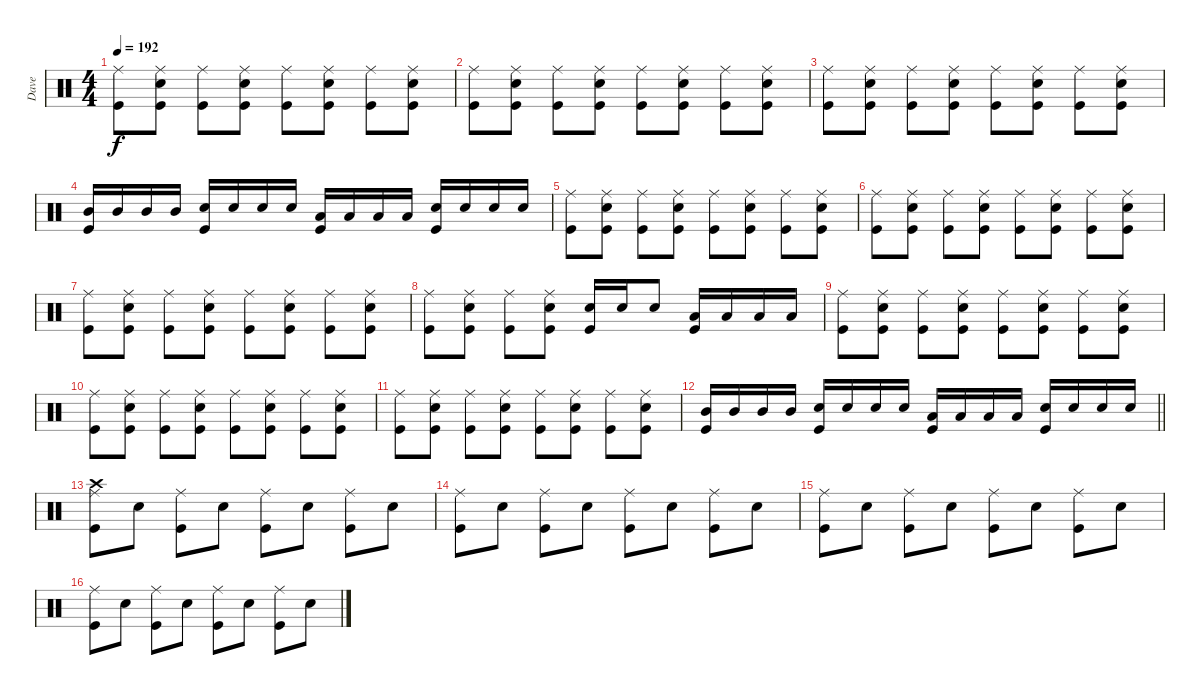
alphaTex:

\track ("Dave" "Dave") {instrument percussion}
\staff {score}
\articulation defaults
\ts (4 4)
\tempo 192
\clef neutral
\ks c
("Ride (middle)" "Kick (hit)").8{dy f} ("Ride (middle)" "Snare (hit) 2" "Kick (hit)").8 ("Ride (middle)" "Kick (hit)").8 ("Ride (middle)" "Snare (hit) 2" "Kick (hit)").8 ("Ride (middle)" "Kick (hit)").8 ("Ride (middle)" "Snare (hit) 2" "Kick (hit)").8 ("Ride (middle)" "Kick (hit)").8 ("Ride (middle)" "Snare (hit) 2" "Kick (hit)").8 |
("Ride (middle)" "Kick (hit)").8 ("Ride (middle)" "Snare (hit) 2" "Kick (hit)").8 ("Ride (middle)" "Kick (hit)").8 ("Ride (middle)" "Snare (hit) 2" "Kick (hit)").8 ("Ride (middle)" "Kick (hit)").8 ("Ride (middle)" "Snare (hit) 2" "Kick (hit)").8 ("Ride (middle)" "Kick (hit)").8 ("Ride (middle)" "Snare (hit) 2" "Kick (hit)").8 |
("Ride (middle)" "Kick (hit)").8 ("Ride (middle)" "Snare (hit) 2" "Kick (hit)").8 ("Ride (middle)" "Kick (hit)").8 ("Ride (middle)" "Snare (hit) 2" "Kick (hit)").8 ("Ride (middle)" "Kick (hit)").8 ("Ride (middle)" "Snare (hit) 2" "Kick (hit)").8 ("Ride (middle)" "Kick (hit)").8 ("Ride (middle)" "Snare (hit) 2" "Kick (hit)").8 |
("Kick (hit)" "Mid Tom (hit)").16 "Mid Tom (hit)".16 "Mid Tom (hit)".16 "Mid Tom (hit)".16 ("Kick (hit)" "Snare (hit) 2").16 "Snare (hit) 2".16 "Snare (hit) 2".16 "Snare (hit) 2".16 ("Kick (hit)" "Low Tom (hit)").16 "Low Tom (hit)".16 "Low Tom (hit)".16 "Low Tom (hit)".16 ("Kick (hit)" "Snare (hit) 2").16 "Snare (hit) 2".16 "Snare (hit) 2".16 "Snare (hit) 2".16 |
("Ride (middle)" "Kick (hit)").8 ("Ride (middle)" "Snare (hit) 2" "Kick (hit)").8 ("Ride (middle)" "Kick (hit)").8 ("Ride (middle)" "Snare (hit) 2" "Kick (hit)").8 ("Ride (middle)" "Kick (hit)").8 ("Ride (middle)" "Snare (hit) 2" "Kick (hit)").8 ("Ride (middle)" "Kick (hit)").8 ("Ride (middle)" "Snare (hit) 2" "Kick (hit)").8 |
("Ride (middle)" "Kick (hit)").8 ("Ride (middle)" "Snare (hit) 2" "Kick (hit)").8 ("Ride (middle)" "Kick (hit)").8 ("Ride (middle)" "Snare (hit) 2" "Kick (hit)").8 ("Ride (middle)" "Kick (hit)").8 ("Ride (middle)" "Snare (hit) 2" "Kick (hit)").8 ("Ride (middle)" "Kick (hit)").8 ("Ride (middle)" "Snare (hit) 2" "Kick (hit)").8 |
("Ride (middle)" "Kick (hit)").8 ("Ride (middle)" "Snare (hit) 2" "Kick (hit)").8 ("Ride (middle)" "Kick (hit)").8 ("Ride (middle)" "Snare (hit) 2" "Kick (hit)").8 ("Ride (middle)" "Kick (hit)").8 ("Ride (middle)" "Snare (hit) 2" "Kick (hit)").8 ("Ride (middle)" "Kick (hit)").8 ("Ride (middle)" "Snare (hit) 2" "Kick (hit)").8 |
("Ride (middle)" "Kick (hit)").8 ("Ride (middle)" "Snare (hit) 2" "Kick (hit)").8 ("Ride (middle)" "Kick (hit)").8 ("Ride (middle)" "Snare (hit) 2" "Kick (hit)").8 ("Snare (hit) 2" "Kick (hit)").16 "Snare (hit) 2".16 "Snare (hit) 2".8 ("Low Tom (hit)" "Kick (hit)").16 "Low Tom (hit)".16 "Low Tom (hit)".16 "Low Tom (hit)".16 |
("Ride (middle)" "Kick (hit)").8 ("Ride (middle)" "Snare (hit) 2" "Kick (hit)").8 ("Ride (middle)" "Kick (hit)").8 ("Ride (middle)" "Snare (hit) 2" "Kick (hit)").8 ("Ride (middle)" "Kick (hit)").8 ("Ride (middle)" "Snare (hit) 2" "Kick (hit)").8 ("Ride (middle)" "Kick (hit)").8 ("Ride (middle)" "Snare (hit) 2" "Kick (hit)").8 |
("Ride (middle)" "Kick (hit)").8 ("Ride (middle)" "Snare (hit) 2" "Kick (hit)").8 ("Ride (middle)" "Kick (hit)").8 ("Ride (middle)" "Snare (hit) 2" "Kick (hit)").8 ("Ride (middle)" "Kick (hit)").8 ("Ride (middle)" "Snare (hit) 2" "Kick (hit)").8 ("Ride (middle)" "Kick (hit)").8 ("Ride (middle)" "Snare (hit) 2" "Kick (hit)").8 |
("Ride (middle)" "Kick (hit)").8 ("Ride (middle)" "Snare (hit) 2" "Kick (hit)").8 ("Ride (middle)" "Kick (hit)").8 ("Ride (middle)" "Snare (hit) 2" "Kick (hit)").8 ("Ride (middle)" "Kick (hit)").8 ("Ride (middle)" "Snare (hit) 2" "Kick (hit)").8 ("Ride (middle)" "Kick (hit)").8 ("Ride (middle)" "Snare (hit) 2" "Kick (hit)").8 |
\barLineRight lightlight
("Kick (hit)" "Mid Tom (hit)").16 "Mid Tom (hit)".16 "Mid Tom (hit)".16 "Mid Tom (hit)".16 ("Kick (hit)" "Snare (hit) 2").16 "Snare (hit) 2".16 "Snare (hit) 2".16 "Snare (hit) 2".16 ("Kick (hit)" "Low Tom (hit)").16 "Low Tom (hit)".16 "Low Tom (hit)".16 "Low Tom (hit)".16 ("Kick (hit)" "Snare (hit) 2").16 "Snare (hit) 2".16 "Snare (hit) 2".16 "Snare (hit) 2".16 |
("Crash high (hit)" "Ride (middle)" "Kick (hit)").8 "Snare (hit) 2".8 ("Ride (middle)" "Kick (hit)").8 "Snare (hit) 2".8 ("Ride (middle)" "Kick (hit)").8 "Snare (hit) 2".8 ("Ride (middle)" "Kick (hit)").8 "Snare (hit) 2".8 |
("Ride (middle)" "Kick (hit)").8 "Snare (hit) 2".8 ("Ride (middle)" "Kick (hit)").8 "Snare (hit) 2".8 ("Ride (middle)" "Kick (hit)").8 "Snare (hit) 2".8 ("Ride (middle)" "Kick (hit)").8 "Snare (hit) 2".8 |
("Ride (middle)" "Kick (hit)").8 "Snare (hit) 2".8 ("Ride (middle)" "Kick (hit)").8 "Snare (hit) 2".8 ("Ride (middle)" "Kick (hit)").8 "Snare (hit) 2".8 ("Ride (middle)" "Kick (hit)").8 "Snare (hit) 2".8 |
("Ride (middle)" "Kick (hit)").8 "Snare (hit) 2".8 ("Ride (middle)" "Kick (hit)").8 "Snare (hit) 2".8 ("Ride (middle)" "Kick (hit)").8 "Snare (hit) 2".8 ("Ride (middle)" "Kick (hit)").8 "Snare (hit) 2".8
